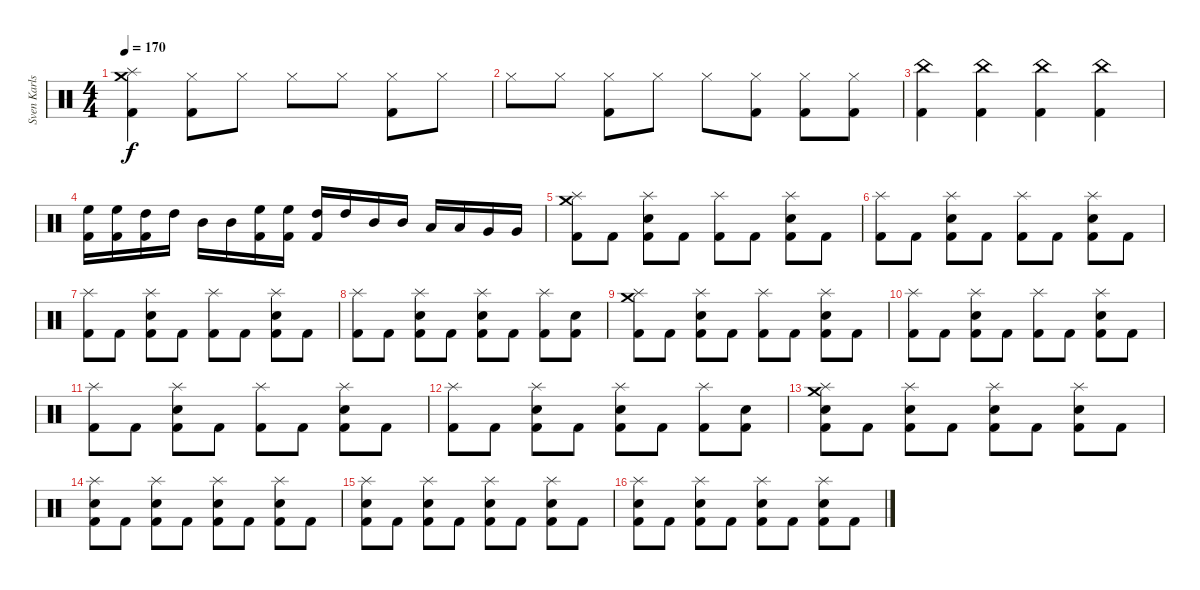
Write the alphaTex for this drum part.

\track ("Sven Karlsson" "Sven Karls") {instrument percussion}
\staff {score}
\articulation defaults
\ts (4 4)
\tempo 170
\clef neutral
\ks c
("Splash (hit)" "Crash medium (hit)" "Kick (hit) 2").4{dy f} ("Hi-Hat (closed)" "Kick (hit) 2").8 "Hi-Hat (closed)".8 "Hi-Hat (closed)".8 "Hi-Hat (closed)".8 ("Hi-Hat (closed)" "Kick (hit) 2").8 "Hi-Hat (closed)".8 |
"Hi-Hat (closed)".8 "Hi-Hat (closed)".8 ("Hi-Hat (closed)" "Kick (hit) 2").8 "Hi-Hat (closed)".8 "Hi-Hat (closed)".8 ("Hi-Hat (closed)" "Kick (hit) 2").8 ("Hi-Hat (closed)" "Kick (hit) 2").8 ("Hi-Hat (closed)" "Kick (hit) 2").8 |
("China (hit)" "Kick (hit) 2").4 ("China (hit)" "Kick (hit) 2").4 ("China (hit)" "Kick (hit) 2").4 ("China (hit)" "Kick (hit) 2").4 |
("Kick (hit) 2" "High Floor Tom (hit)").16 ("Kick (hit) 2" "High Floor Tom (hit)").16 ("Kick (hit) 2" "High Tom (hit)").16 "High Tom (hit)".16 "Mid Tom (hit)".16 "Mid Tom (hit)".16 ("Kick (hit) 2" "High Floor Tom (hit)").16 ("Kick (hit) 2" "High Floor Tom (hit)").16 ("Kick (hit) 2" "High Tom (hit)").16 "High Tom (hit)".16 "Mid Tom (hit)".16 "Mid Tom (hit)".16 "Low Tom (hit)".16 "Low Tom (hit)".16 "Very Low Tom (hit)".16 "Very Low Tom (hit)".16 |
("Splash (hit)" "Crash medium (hit)" "Kick (hit) 2").8 "Kick (hit) 2".8 ("Splash (hit)" "Electric Snare (hit)" "Kick (hit) 2").8 "Kick (hit) 2".8 ("Splash (hit)" "Kick (hit) 2").8 "Kick (hit) 2".8 ("Splash (hit)" "Electric Snare (hit)" "Kick (hit) 2").8 "Kick (hit) 2".8 |
("Splash (hit)" "Kick (hit) 2").8 "Kick (hit) 2".8 ("Splash (hit)" "Electric Snare (hit)" "Kick (hit) 2").8 "Kick (hit) 2".8 ("Splash (hit)" "Kick (hit) 2").8 "Kick (hit) 2".8 ("Splash (hit)" "Electric Snare (hit)" "Kick (hit) 2").8 "Kick (hit) 2".8 |
("Splash (hit)" "Kick (hit) 2").8 "Kick (hit) 2".8 ("Splash (hit)" "Electric Snare (hit)" "Kick (hit) 2").8 "Kick (hit) 2".8 ("Splash (hit)" "Kick (hit) 2").8 "Kick (hit) 2".8 ("Splash (hit)" "Electric Snare (hit)" "Kick (hit) 2").8 "Kick (hit) 2".8 |
("Splash (hit)" "Kick (hit) 2").8 "Kick (hit) 2".8 ("Splash (hit)" "Electric Snare (hit)" "Kick (hit) 2").8 "Kick (hit) 2".8 ("Splash (hit)" "Electric Snare (hit)" "Kick (hit) 2").8 "Kick (hit) 2".8 ("Splash (hit)" "Kick (hit) 2").8 ("Electric Snare (hit)" "Kick (hit) 2").8 |
("Splash (hit)" "Crash medium (hit)" "Kick (hit) 2").8 "Kick (hit) 2".8 ("Splash (hit)" "Electric Snare (hit)" "Kick (hit) 2").8 "Kick (hit) 2".8 ("Splash (hit)" "Kick (hit) 2").8 "Kick (hit) 2".8 ("Splash (hit)" "Electric Snare (hit)" "Kick (hit) 2").8 "Kick (hit) 2".8 |
("Splash (hit)" "Kick (hit) 2").8 "Kick (hit) 2".8 ("Splash (hit)" "Electric Snare (hit)" "Kick (hit) 2").8 "Kick (hit) 2".8 ("Splash (hit)" "Kick (hit) 2").8 "Kick (hit) 2".8 ("Splash (hit)" "Electric Snare (hit)" "Kick (hit) 2").8 "Kick (hit) 2".8 |
("Splash (hit)" "Kick (hit) 2").8 "Kick (hit) 2".8 ("Splash (hit)" "Electric Snare (hit)" "Kick (hit) 2").8 "Kick (hit) 2".8 ("Splash (hit)" "Kick (hit) 2").8 "Kick (hit) 2".8 ("Splash (hit)" "Electric Snare (hit)" "Kick (hit) 2").8 "Kick (hit) 2".8 |
("Splash (hit)" "Kick (hit) 2").8 "Kick (hit) 2".8 ("Splash (hit)" "Electric Snare (hit)" "Kick (hit) 2").8 "Kick (hit) 2".8 ("Splash (hit)" "Electric Snare (hit)" "Kick (hit) 2").8 "Kick (hit) 2".8 ("Splash (hit)" "Kick (hit) 2").8 ("Electric Snare (hit)" "Kick (hit) 2").8 |
("Splash (hit)" "Crash medium (hit)" "Electric Snare (hit)" "Kick (hit) 2").8 "Kick (hit) 2".8 ("Splash (hit)" "Electric Snare (hit)" "Kick (hit) 2").8 "Kick (hit) 2".8 ("Splash (hit)" "Electric Snare (hit)" "Kick (hit) 2").8 "Kick (hit) 2".8 ("Splash (hit)" "Electric Snare (hit)" "Kick (hit) 2").8 "Kick (hit) 2".8 |
("Splash (hit)" "Electric Snare (hit)" "Kick (hit) 2").8 "Kick (hit) 2".8 ("Splash (hit)" "Electric Snare (hit)" "Kick (hit) 2").8 "Kick (hit) 2".8 ("Splash (hit)" "Electric Snare (hit)" "Kick (hit) 2").8 "Kick (hit) 2".8 ("Splash (hit)" "Electric Snare (hit)" "Kick (hit) 2").8 "Kick (hit) 2".8 |
("Splash (hit)" "Electric Snare (hit)" "Kick (hit) 2").8 "Kick (hit) 2".8 ("Splash (hit)" "Electric Snare (hit)" "Kick (hit) 2").8 "Kick (hit) 2".8 ("Splash (hit)" "Electric Snare (hit)" "Kick (hit) 2").8 "Kick (hit) 2".8 ("Splash (hit)" "Electric Snare (hit)" "Kick (hit) 2").8 "Kick (hit) 2".8 |
("Splash (hit)" "Electric Snare (hit)" "Kick (hit) 2").8 "Kick (hit) 2".8 ("Splash (hit)" "Electric Snare (hit)" "Kick (hit) 2").8 "Kick (hit) 2".8 ("Splash (hit)" "Electric Snare (hit)" "Kick (hit) 2").8 "Kick (hit) 2".8 ("Splash (hit)" "Electric Snare (hit)" "Kick (hit) 2").8 "Kick (hit) 2".8
